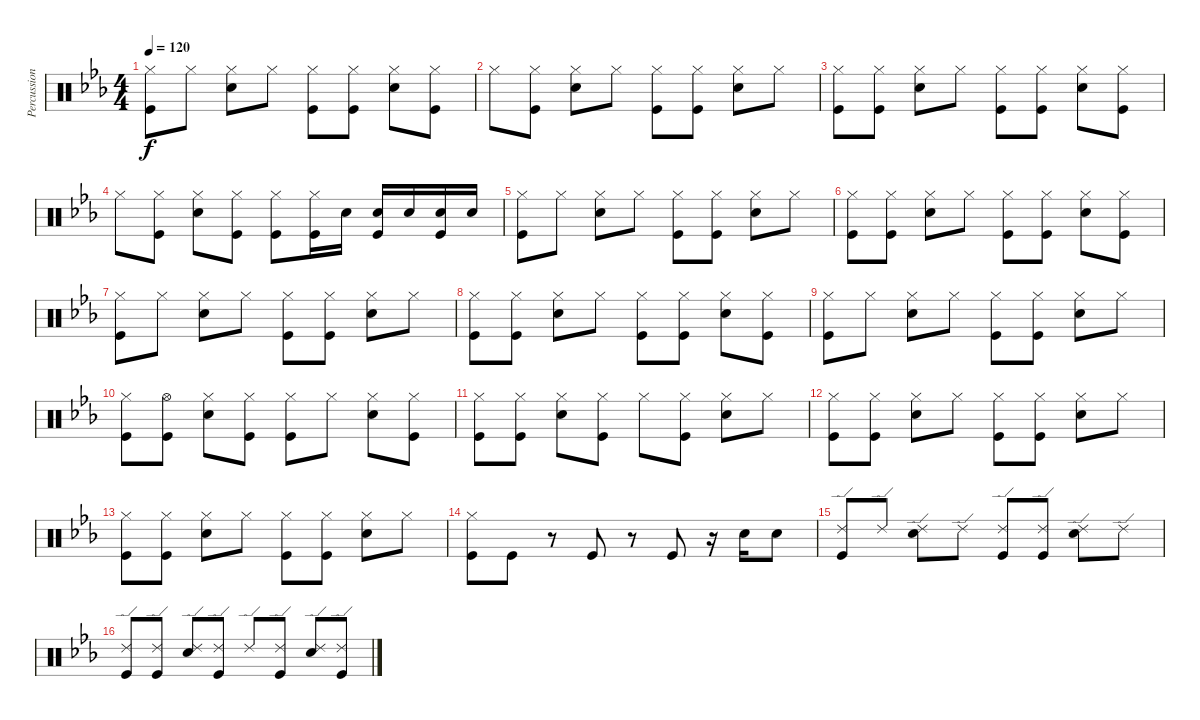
\track ("Percussion" "Percussion") {instrument percussion}
\staff {score}
\articulation defaults
\ts (4 4)
\tempo 120
\clef neutral
\ks eb
("Hi-Hat (closed)" "Kick (hit)").8{dy f} "Hi-Hat (closed)".8 ("Hi-Hat (closed)" "Snare (hit) 2").8 "Hi-Hat (closed)".8 ("Hi-Hat (closed)" "Kick (hit)").8 ("Hi-Hat (closed)" "Kick (hit)").8 ("Hi-Hat (closed)" "Snare (hit) 2").8 ("Hi-Hat (closed)" "Kick (hit)").8 |
"Hi-Hat (closed)".8 ("Hi-Hat (closed)" "Kick (hit)").8 ("Hi-Hat (closed)" "Snare (hit) 2").8 "Hi-Hat (closed)".8 ("Hi-Hat (closed)" "Kick (hit)").8 ("Hi-Hat (closed)" "Kick (hit)").8 ("Hi-Hat (closed)" "Snare (hit) 2").8 "Hi-Hat (closed)".8 |
("Hi-Hat (closed)" "Kick (hit)").8 ("Hi-Hat (closed)" "Kick (hit)").8 ("Hi-Hat (closed)" "Snare (hit) 2").8 "Hi-Hat (closed)".8 ("Hi-Hat (closed)" "Kick (hit)").8 ("Hi-Hat (closed)" "Kick (hit)").8 ("Hi-Hat (closed)" "Snare (hit) 2").8 ("Hi-Hat (closed)" "Kick (hit)").8 |
"Hi-Hat (closed)".8 ("Hi-Hat (closed)" "Kick (hit)").8 ("Hi-Hat (closed)" "Snare (hit) 2").8 ("Hi-Hat (closed)" "Kick (hit)").8 ("Hi-Hat (closed)" "Kick (hit)").8 ("Hi-Hat (closed)" "Kick (hit)").16 "Snare (hit) 2".16 ("Snare (hit) 2" "Kick (hit)").16 "Snare (hit) 2".16 ("Snare (hit) 2" "Kick (hit)").16 "Snare (hit) 2".16 |
("Hi-Hat (closed)" "Kick (hit)").8 "Hi-Hat (closed)".8 ("Hi-Hat (closed)" "Snare (hit) 2").8 "Hi-Hat (closed)".8 ("Hi-Hat (closed)" "Kick (hit)").8 ("Hi-Hat (closed)" "Kick (hit)").8 ("Hi-Hat (closed)" "Snare (hit) 2").8 "Hi-Hat (closed)".8 |
("Hi-Hat (closed)" "Kick (hit)").8 ("Hi-Hat (closed)" "Kick (hit)").8 ("Hi-Hat (closed)" "Snare (hit) 2").8 "Hi-Hat (closed)".8 ("Hi-Hat (closed)" "Kick (hit)").8 ("Hi-Hat (closed)" "Kick (hit)").8 ("Hi-Hat (closed)" "Snare (hit) 2").8 ("Hi-Hat (closed)" "Kick (hit)").8 |
("Hi-Hat (closed)" "Kick (hit)").8 "Hi-Hat (closed)".8 ("Hi-Hat (closed)" "Snare (hit) 2").8 "Hi-Hat (closed)".8 ("Hi-Hat (closed)" "Kick (hit)").8 ("Hi-Hat (closed)" "Kick (hit)").8 ("Hi-Hat (closed)" "Snare (hit) 2").8 "Hi-Hat (closed)".8 |
("Hi-Hat (closed)" "Kick (hit)").8 ("Hi-Hat (closed)" "Kick (hit)").8 ("Hi-Hat (closed)" "Snare (hit) 2").8 "Hi-Hat (closed)".8 ("Hi-Hat (closed)" "Kick (hit)").8 ("Hi-Hat (closed)" "Kick (hit)").8 ("Hi-Hat (closed)" "Snare (hit) 2").8 ("Hi-Hat (closed)" "Kick (hit)").8 |
("Hi-Hat (closed)" "Kick (hit)").8 "Hi-Hat (closed)".8 ("Hi-Hat (closed)" "Snare (hit) 2").8 "Hi-Hat (closed)".8 ("Hi-Hat (closed)" "Kick (hit)").8 ("Hi-Hat (closed)" "Kick (hit)").8 ("Hi-Hat (closed)" "Snare (hit) 2").8 "Hi-Hat (closed)".8 |
("Hi-Hat (closed)" "Kick (hit)").8 ("Hi-Hat (open)" "Kick (hit)").8 ("Hi-Hat (closed)" "Snare (hit) 2").8 ("Hi-Hat (closed)" "Kick (hit)").8 ("Hi-Hat (closed)" "Kick (hit)").8 "Hi-Hat (closed)".8 ("Hi-Hat (closed)" "Snare (hit) 2").8 ("Hi-Hat (closed)" "Kick (hit)").8 |
("Hi-Hat (closed)" "Kick (hit)").8 ("Hi-Hat (closed)" "Kick (hit)").8 ("Hi-Hat (closed)" "Snare (hit) 2").8 ("Hi-Hat (closed)" "Kick (hit)").8 "Hi-Hat (closed)".8 ("Hi-Hat (closed)" "Kick (hit)").8 ("Hi-Hat (closed)" "Snare (hit) 2").8 "Hi-Hat (closed)".8 |
("Hi-Hat (closed)" "Kick (hit)").8 ("Hi-Hat (closed)" "Kick (hit)").8 ("Hi-Hat (closed)" "Snare (hit) 2").8 "Hi-Hat (closed)".8 ("Hi-Hat (closed)" "Kick (hit)").8 ("Hi-Hat (closed)" "Kick (hit)").8 ("Hi-Hat (closed)" "Snare (hit) 2").8 "Hi-Hat (closed)".8 |
("Hi-Hat (closed)" "Kick (hit)").8 ("Hi-Hat (closed)" "Kick (hit)").8 ("Hi-Hat (closed)" "Snare (hit) 2").8 "Hi-Hat (closed)".8 ("Hi-Hat (closed)" "Kick (hit)").8 ("Hi-Hat (closed)" "Kick (hit)").8 ("Hi-Hat (closed)" "Snare (hit) 2").8 "Hi-Hat (closed)".8 |
("Hi-Hat (closed)" "Kick (hit)").8 "Kick (hit)".8 r.8 "Kick (hit)".8 r.8 "Kick (hit)".8 r.16 "Snare (hit) 2".16 "Snare (hit) 2".8 |
("Ride (edge) 2" "Kick (hit)").8 "Ride (edge) 2".8 ("Ride (edge) 2" "Snare (hit) 2").8 "Ride (edge) 2".8 ("Ride (edge) 2" "Kick (hit)").8 ("Ride (edge) 2" "Kick (hit)").8 ("Ride (edge) 2" "Snare (hit) 2").8 "Ride (edge) 2".8 |
("Ride (edge) 2" "Kick (hit)").8 ("Ride (edge) 2" "Kick (hit)").8 ("Ride (edge) 2" "Snare (hit) 2").8 ("Ride (edge) 2" "Kick (hit)").8 "Ride (edge) 2".8 ("Ride (edge) 2" "Kick (hit)").8 ("Ride (edge) 2" "Snare (hit) 2").8 ("Ride (edge) 2" "Kick (hit)").8
